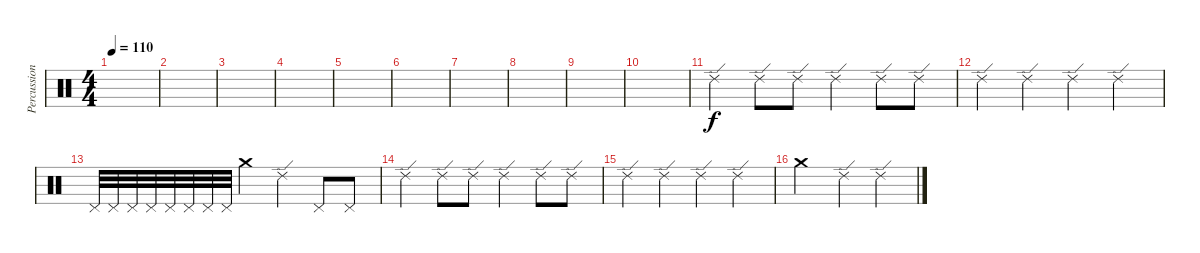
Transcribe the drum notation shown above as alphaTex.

\track ("Percussion" "Percussion") {instrument percussion}
\staff {score}
\articulation defaults
\ts (4 4)
\tempo 110
\clef neutral
\ks c
|
|
|
|
|
|
|
|
|
|
"Ride (edge) 2".4 "Ride (edge) 2".8 "Ride (edge) 2".8 "Ride (edge) 2".4 "Ride (edge) 2".8 "Ride (edge) 2".8 |
"Ride (edge) 2".4 "Ride (edge) 2".4 "Ride (edge) 2".4 "Ride (edge) 2".4 |
"Pedal Hi-Hat (hit)".32 "Pedal Hi-Hat (hit)".32 "Pedal Hi-Hat (hit)".32 "Pedal Hi-Hat (hit)".32 "Pedal Hi-Hat (hit)".32 "Pedal Hi-Hat (hit)".32 "Pedal Hi-Hat (hit)".32 "Pedal Hi-Hat (hit)".32 "Crash medium (hit)".4 "Ride (edge) 2".4 "Pedal Hi-Hat (hit)".8 "Pedal Hi-Hat (hit)".8 |
"Ride (edge) 2".4 "Ride (edge) 2".8 "Ride (edge) 2".8 "Ride (edge) 2".4 "Ride (edge) 2".8 "Ride (edge) 2".8 |
"Ride (edge) 2".4 "Ride (edge) 2".4 "Ride (edge) 2".4 "Ride (edge) 2".4 |
"Crash medium (hit)".2 "Ride (edge) 2".4 "Ride (edge) 2".4
